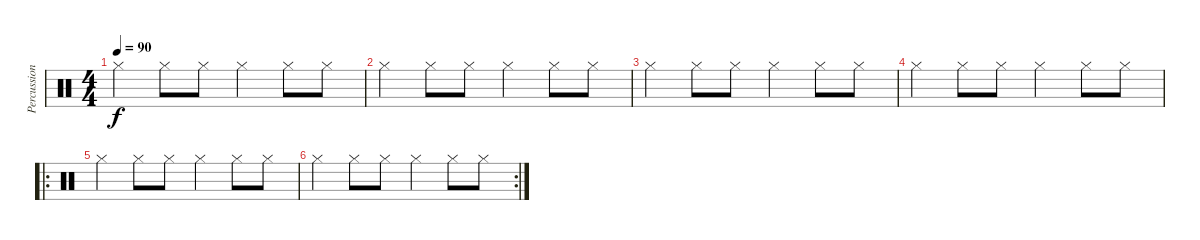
\track ("Percussion" "Percussion") {instrument percussion}
\staff {score}
\articulation defaults
\ts (4 4)
\tempo 90
\clef neutral
\ks c "Hi-Hat (closed)".4{dy f} "Hi-Hat (closed)".8 "Hi-Hat (closed)".8 "Hi-Hat (closed)".4 "Hi-Hat (closed)".8 "Hi-Hat (closed)".8
|
"Hi-Hat (closed)".4 "Hi-Hat (closed)".8 "Hi-Hat (closed)".8 "Hi-Hat (closed)".4 "Hi-Hat (closed)".8 "Hi-Hat (closed)".8 |
"Hi-Hat (closed)".4 "Hi-Hat (closed)".8 "Hi-Hat (closed)".8 "Hi-Hat (closed)".4 "Hi-Hat (closed)".8 "Hi-Hat (closed)".8 |
"Hi-Hat (closed)".4 "Hi-Hat (closed)".8 "Hi-Hat (closed)".8 "Hi-Hat (closed)".4 "Hi-Hat (closed)".8 "Hi-Hat (closed)".8 |
\ro "Hi-Hat (closed)".4 "Hi-Hat (closed)".8 "Hi-Hat (closed)".8 "Hi-Hat (closed)".4 "Hi-Hat (closed)".8 "Hi-Hat (closed)".8
|
\rc 2 "Hi-Hat (closed)".4 "Hi-Hat (closed)".8 "Hi-Hat (closed)".8 "Hi-Hat (closed)".4 "Hi-Hat (closed)".8 "Hi-Hat (closed)".8
